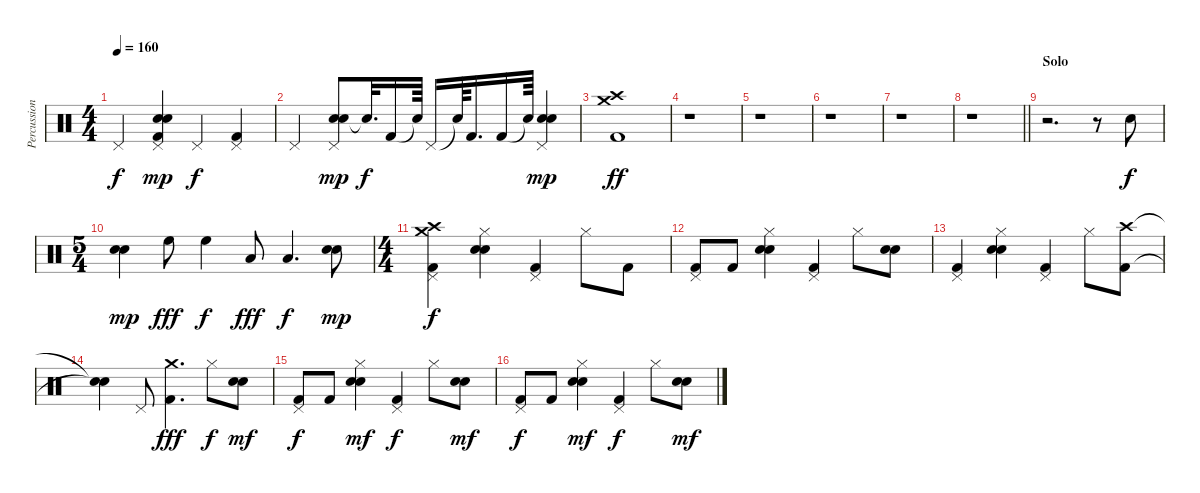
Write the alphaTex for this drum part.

\track ("Percussion" "Percussion") {instrument percussion}
\staff {score}
\articulation defaults
\ts (4 4)
\tempo 160
\clef neutral
\ks c "Pedal Hi-Hat (hit)".4{dy f}
("Snare (hit) 2" "Pedal Hi-Hat (hit)" "Kick (hit) 2" "Electric Snare (hit)").4{dy mp} "Pedal Hi-Hat (hit)".4{dy f} ("Kick (hit) 2" "Pedal Hi-Hat (hit)").4 |
"Pedal Hi-Hat (hit)".4 ("Snare (hit) 2" "Electric Snare (hit)" "Pedal Hi-Hat (hit)").8{dy mp} "Snare (hit)"{t}.32{d dy f} "Kick (hit) 2".16 "Snare (hit)"{t}.64 "Pedal Hi-Hat (hit)".16 "Snare (hit)"{t}.64 "Kick (hit) 2".16{d} "Kick (hit) 2".16 "Snare (hit)"{t}.64 ("Snare (hit) 2" "Electric Snare (hit)" "Pedal Hi-Hat (hit)").4{dy mp} |
("Kick (hit) 2" "Crash high (hit)" "Crash medium (hit)").1{dy ff} |
r.1 |
r.1 |
r.1 |
r.1 |
\barLineRight lightlight
r.1 |
\section ("" "Solo")
r.2{d} r.8 "Snare (hit) 2".8{dy f volume 12} |
\ts (5 4)
("Snare (hit) 2" "Electric Snare (hit)").4{dy mp} "High Floor Tom (hit)".8{dy fff} "High Floor Tom (hit)".4{dy f} "Low Tom (hit)".8{dy fff} "Low Tom (hit)".4{d dy f} ("Snare (hit) 2" "Electric Snare (hit)").8{dy mp} |
\ts (4 4)
("Crash high (hit)" "Kick (hit) 2" "Pedal Hi-Hat (hit)" "Crash medium (hit)").4{dy f} ("Hi-Hat (closed)" "Snare (hit) 2" "Electric Snare (hit)").4 ("Pedal Hi-Hat (hit)" "Kick (hit) 2").4 "Hi-Hat (closed)".8 "Kick (hit) 2".8 |
("Pedal Hi-Hat (hit)" "Kick (hit) 2").8 "Kick (hit) 2".8 ("Hi-Hat (closed)" "Snare (hit) 2" "Electric Snare (hit)").4 ("Pedal Hi-Hat (hit)" "Kick (hit) 2").4 "Hi-Hat (closed)".8 ("Snare (hit) 2" "Electric Snare (hit)").8 |
("Kick (hit) 2" "Pedal Hi-Hat (hit)").4 ("Snare (hit) 2" "Hi-Hat (closed)" "Electric Snare (hit)").4 ("Kick (hit) 2" "Pedal Hi-Hat (hit)").4 "Hi-Hat (closed)".8 ("Crash high (hit)" "Kick (hit) 2").8 |
("Snare (hit)"{t} "Snare (hit)"{t}).4 "Pedal Hi-Hat (hit)".8 ("Crash medium (hit)" "Kick (hit) 2").4{d dy fff} "Hi-Hat (closed)".8{dy f} ("Snare (hit) 2" "Electric Snare (hit)").8{dy mf} |
("Pedal Hi-Hat (hit)" "Kick (hit) 2").8{dy f} "Kick (hit) 2".8 ("Hi-Hat (closed)" "Snare (hit) 2" "Electric Snare (hit)").4{dy mf} ("Pedal Hi-Hat (hit)" "Kick (hit) 2").4{dy f} "Hi-Hat (closed)".8 ("Snare (hit) 2" "Electric Snare (hit)").8{dy mf} |
("Pedal Hi-Hat (hit)" "Kick (hit) 2").8{dy f} "Kick (hit) 2".8 ("Hi-Hat (closed)" "Snare (hit) 2" "Electric Snare (hit)").4{dy mf} ("Pedal Hi-Hat (hit)" "Kick (hit) 2").4{dy f} "Hi-Hat (closed)".8 ("Snare (hit) 2" "Electric Snare (hit)").8{dy mf}
